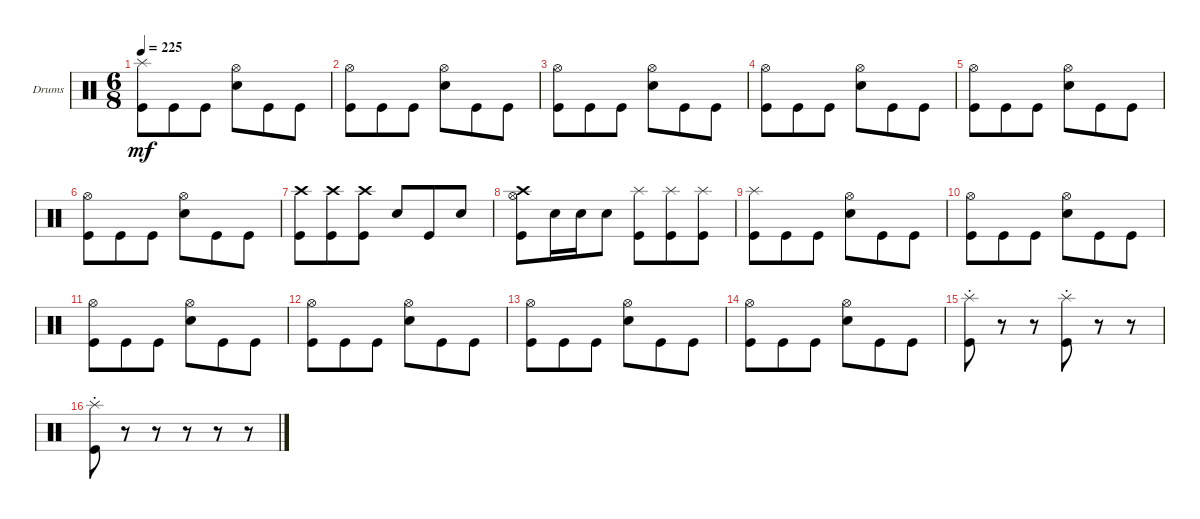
\bracketExtendMode groupsimilarinstruments
\firstSystemTrackNameOrientation horizontal
\otherSystemsTrackNameOrientation horizontal
\track ("Drumkit" "Drums") {solo instrument percussion}
\staff {score}
\articulation defaults
\ts (6 8)
\tempo 225
\clef neutral
\ks c
("Kick (hit)" "Splash (hit)").8{dy mf} "Kick (hit)".8 "Kick (hit)".8 ("Snare (hit) 2" "Hi-Hat (open)").8 "Kick (hit)".8 "Kick (hit)".8 |
("Kick (hit)" "Hi-Hat (open)").8 "Kick (hit)".8 "Kick (hit)".8 ("Snare (hit) 2" "Hi-Hat (open)").8 "Kick (hit)".8 "Kick (hit)".8 |
("Kick (hit)" "Hi-Hat (open)").8 "Kick (hit)".8 "Kick (hit)".8 ("Snare (hit) 2" "Hi-Hat (open)").8 "Kick (hit)".8 "Kick (hit)".8 |
("Kick (hit)" "Hi-Hat (open)").8 "Kick (hit)".8 "Kick (hit)".8 ("Snare (hit) 2" "Hi-Hat (open)").8 "Kick (hit)".8 "Kick (hit)".8 |
("Kick (hit)" "Hi-Hat (open)").8 "Kick (hit)".8 "Kick (hit)".8 ("Snare (hit) 2" "Hi-Hat (open)").8 "Kick (hit)".8 "Kick (hit)".8 |
("Kick (hit)" "Hi-Hat (open)").8 "Kick (hit)".8 "Kick (hit)".8 ("Snare (hit) 2" "Hi-Hat (open)").8 "Kick (hit)".8 "Kick (hit)".8 |
("Kick (hit)" "Crash high (hit)").8 ("Kick (hit)" "Crash high (hit)").8 ("Kick (hit)" "Crash high (hit)").8 "Snare (hit) 2".8 "Kick (hit)".8 "Snare (hit) 2".8 |
("Kick (hit)" "Hi-Hat (open)" "Crash high (hit)").8 "Snare (hit) 2".16 "Snare (hit) 2".16 "Snare (hit) 2".8 ("Kick (hit)" "Splash (hit)").8 ("Kick (hit)" "Splash (hit)").8 ("Kick (hit)" "Splash (hit)").8 |
("Kick (hit)" "Splash (hit)").8 "Kick (hit)".8 "Kick (hit)".8 ("Snare (hit) 2" "Hi-Hat (open)").8 "Kick (hit)".8 "Kick (hit)".8 |
("Kick (hit)" "Hi-Hat (open)").8 "Kick (hit)".8 "Kick (hit)".8 ("Snare (hit) 2" "Hi-Hat (open)").8 "Kick (hit)".8 "Kick (hit)".8 |
("Kick (hit)" "Hi-Hat (open)").8 "Kick (hit)".8 "Kick (hit)".8 ("Snare (hit) 2" "Hi-Hat (open)").8 "Kick (hit)".8 "Kick (hit)".8 |
("Kick (hit)" "Hi-Hat (open)").8 "Kick (hit)".8 "Kick (hit)".8 ("Snare (hit) 2" "Hi-Hat (open)").8 "Kick (hit)".8 "Kick (hit)".8 |
("Kick (hit)" "Hi-Hat (open)").8 "Kick (hit)".8 "Kick (hit)".8 ("Snare (hit) 2" "Hi-Hat (open)").8 "Kick (hit)".8 "Kick (hit)".8 |
("Kick (hit)" "Hi-Hat (open)").8 "Kick (hit)".8 "Kick (hit)".8 ("Snare (hit) 2" "Hi-Hat (open)").8 "Kick (hit)".8 "Kick (hit)".8 |
("Kick (hit)" "Splash (hit)"{st}).8 r.8 r.8 ("Kick (hit)" "Splash (hit)"{st}).8 r.8 r.8 |
("Kick (hit)" "Splash (hit)"{st}).8 r.8 r.8 r.8 r.8 r.8
